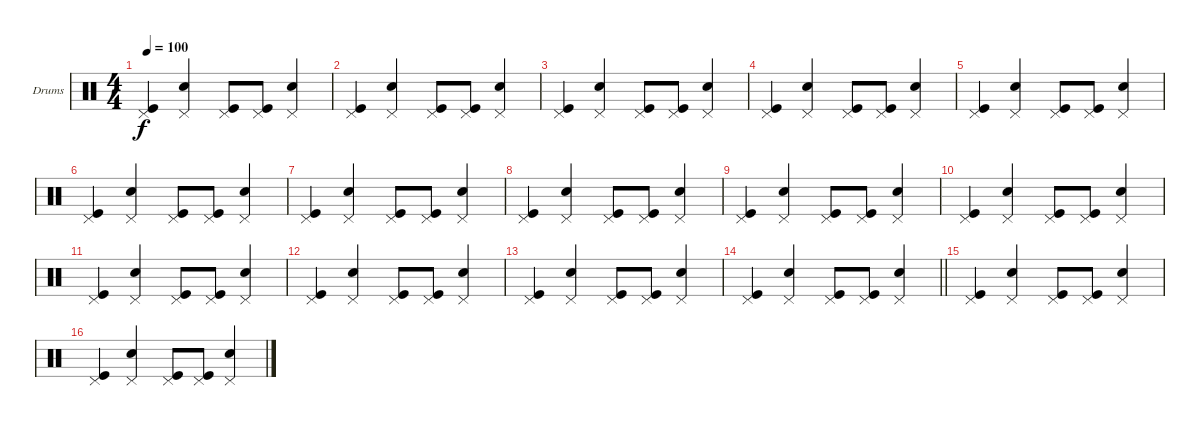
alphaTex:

\bracketExtendMode groupsimilarinstruments
\firstSystemTrackNameOrientation horizontal
\otherSystemsTrackNameOrientation horizontal
\track ("Drumkit" "Drums") {instrument percussion}
\staff {score}
\articulation defaults
\ts (4 4)
\tempo 100
\clef neutral
\ks c
("Pedal Hi-Hat (hit)" "Kick (hit)").4{dy f} ("Pedal Hi-Hat (hit)" "Snare (hit) 2").4 ("Pedal Hi-Hat (hit)" "Kick (hit)").8 ("Pedal Hi-Hat (hit)" "Kick (hit)").8 ("Pedal Hi-Hat (hit)" "Snare (hit) 2").4 |
("Pedal Hi-Hat (hit)" "Kick (hit)").4 ("Pedal Hi-Hat (hit)" "Snare (hit) 2").4 ("Pedal Hi-Hat (hit)" "Kick (hit)").8 ("Pedal Hi-Hat (hit)" "Kick (hit)").8 ("Pedal Hi-Hat (hit)" "Snare (hit) 2").4 |
("Pedal Hi-Hat (hit)" "Kick (hit)").4 ("Pedal Hi-Hat (hit)" "Snare (hit) 2").4 ("Pedal Hi-Hat (hit)" "Kick (hit)").8 ("Pedal Hi-Hat (hit)" "Kick (hit)").8 ("Pedal Hi-Hat (hit)" "Snare (hit) 2").4 |
("Pedal Hi-Hat (hit)" "Kick (hit)").4 ("Pedal Hi-Hat (hit)" "Snare (hit) 2").4 ("Pedal Hi-Hat (hit)" "Kick (hit)").8 ("Pedal Hi-Hat (hit)" "Kick (hit)").8 ("Pedal Hi-Hat (hit)" "Snare (hit) 2").4 |
("Pedal Hi-Hat (hit)" "Kick (hit)").4 ("Pedal Hi-Hat (hit)" "Snare (hit) 2").4 ("Pedal Hi-Hat (hit)" "Kick (hit)").8 ("Pedal Hi-Hat (hit)" "Kick (hit)").8 ("Pedal Hi-Hat (hit)" "Snare (hit) 2").4 |
("Pedal Hi-Hat (hit)" "Kick (hit)").4 ("Pedal Hi-Hat (hit)" "Snare (hit) 2").4 ("Pedal Hi-Hat (hit)" "Kick (hit)").8 ("Pedal Hi-Hat (hit)" "Kick (hit)").8 ("Pedal Hi-Hat (hit)" "Snare (hit) 2").4 |
("Pedal Hi-Hat (hit)" "Kick (hit)").4 ("Pedal Hi-Hat (hit)" "Snare (hit) 2").4 ("Pedal Hi-Hat (hit)" "Kick (hit)").8 ("Pedal Hi-Hat (hit)" "Kick (hit)").8 ("Pedal Hi-Hat (hit)" "Snare (hit) 2").4 |
("Pedal Hi-Hat (hit)" "Kick (hit)").4 ("Pedal Hi-Hat (hit)" "Snare (hit) 2").4 ("Pedal Hi-Hat (hit)" "Kick (hit)").8 ("Pedal Hi-Hat (hit)" "Kick (hit)").8 ("Pedal Hi-Hat (hit)" "Snare (hit) 2").4 |
("Pedal Hi-Hat (hit)" "Kick (hit)").4 ("Pedal Hi-Hat (hit)" "Snare (hit) 2").4 ("Pedal Hi-Hat (hit)" "Kick (hit)").8 ("Pedal Hi-Hat (hit)" "Kick (hit)").8 ("Pedal Hi-Hat (hit)" "Snare (hit) 2").4 |
("Pedal Hi-Hat (hit)" "Kick (hit)").4 ("Pedal Hi-Hat (hit)" "Snare (hit) 2").4 ("Pedal Hi-Hat (hit)" "Kick (hit)").8 ("Pedal Hi-Hat (hit)" "Kick (hit)").8 ("Pedal Hi-Hat (hit)" "Snare (hit) 2").4 |
("Pedal Hi-Hat (hit)" "Kick (hit)").4 ("Pedal Hi-Hat (hit)" "Snare (hit) 2").4 ("Pedal Hi-Hat (hit)" "Kick (hit)").8 ("Pedal Hi-Hat (hit)" "Kick (hit)").8 ("Pedal Hi-Hat (hit)" "Snare (hit) 2").4 |
("Pedal Hi-Hat (hit)" "Kick (hit)").4 ("Pedal Hi-Hat (hit)" "Snare (hit) 2").4 ("Pedal Hi-Hat (hit)" "Kick (hit)").8 ("Pedal Hi-Hat (hit)" "Kick (hit)").8 ("Pedal Hi-Hat (hit)" "Snare (hit) 2").4 |
("Pedal Hi-Hat (hit)" "Kick (hit)").4 ("Pedal Hi-Hat (hit)" "Snare (hit) 2").4 ("Pedal Hi-Hat (hit)" "Kick (hit)").8 ("Pedal Hi-Hat (hit)" "Kick (hit)").8 ("Pedal Hi-Hat (hit)" "Snare (hit) 2").4 |
\barLineRight lightlight
("Pedal Hi-Hat (hit)" "Kick (hit)").4 ("Pedal Hi-Hat (hit)" "Snare (hit) 2").4 ("Pedal Hi-Hat (hit)" "Kick (hit)").8 ("Pedal Hi-Hat (hit)" "Kick (hit)").8 ("Pedal Hi-Hat (hit)" "Snare (hit) 2").4 |
("Pedal Hi-Hat (hit)" "Kick (hit)").4 ("Pedal Hi-Hat (hit)" "Snare (hit) 2").4 ("Pedal Hi-Hat (hit)" "Kick (hit)").8 ("Pedal Hi-Hat (hit)" "Kick (hit)").8 ("Pedal Hi-Hat (hit)" "Snare (hit) 2").4 |
("Pedal Hi-Hat (hit)" "Kick (hit)").4 ("Pedal Hi-Hat (hit)" "Snare (hit) 2").4 ("Pedal Hi-Hat (hit)" "Kick (hit)").8 ("Pedal Hi-Hat (hit)" "Kick (hit)").8 ("Pedal Hi-Hat (hit)" "Snare (hit) 2").4
